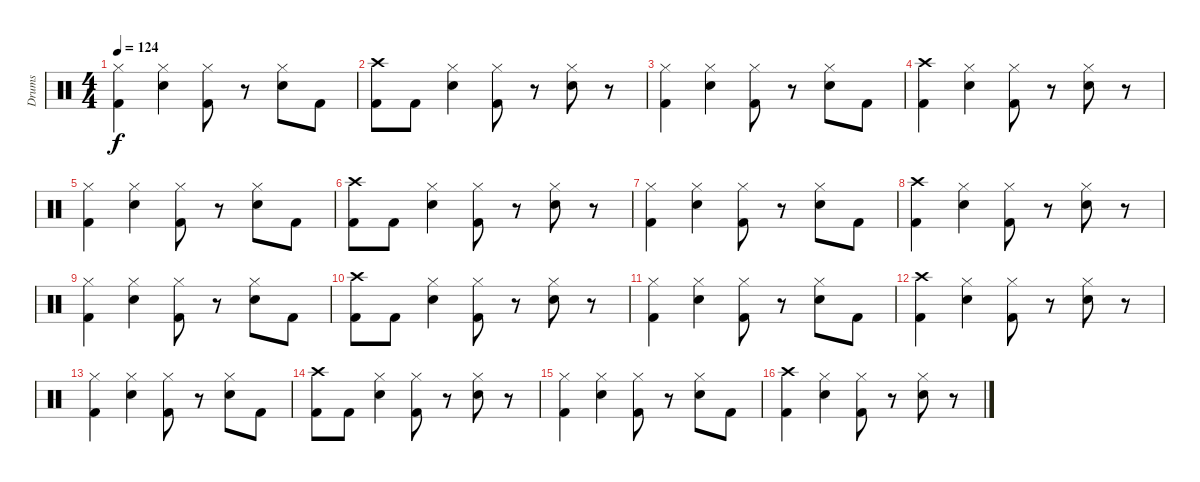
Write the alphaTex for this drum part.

\track ("Drums" "Drums") {instrument percussion}
\staff {score}
\articulation defaults
\ts (4 4)
\tempo 124
\clef neutral
\ks c
("Hi-Hat (closed)" "Kick (hit) 2").4{dy f} ("Hi-Hat (closed)" "Snare (hit) 2").4 ("Hi-Hat (closed)" "Kick (hit) 2").8 r.8 ("Hi-Hat (closed)" "Snare (hit) 2").8 "Kick (hit) 2".8 |
("Crash high (hit)" "Kick (hit) 2").8 "Kick (hit) 2".8 ("Hi-Hat (closed)" "Snare (hit) 2").4 ("Hi-Hat (closed)" "Kick (hit) 2").8 r.8 ("Hi-Hat (closed)" "Snare (hit) 2").8 r.8 |
("Hi-Hat (closed)" "Kick (hit) 2").4 ("Hi-Hat (closed)" "Snare (hit) 2").4 ("Hi-Hat (closed)" "Kick (hit) 2").8 r.8 ("Hi-Hat (closed)" "Snare (hit) 2").8 "Kick (hit) 2".8 |
("Crash high (hit)" "Kick (hit) 2").4 ("Hi-Hat (closed)" "Snare (hit) 2").4 ("Hi-Hat (closed)" "Kick (hit) 2").8 r.8 ("Hi-Hat (closed)" "Snare (hit) 2").8 r.8 |
("Hi-Hat (closed)" "Kick (hit) 2").4 ("Hi-Hat (closed)" "Snare (hit) 2").4 ("Hi-Hat (closed)" "Kick (hit) 2").8 r.8 ("Hi-Hat (closed)" "Snare (hit) 2").8 "Kick (hit) 2".8 |
("Crash high (hit)" "Kick (hit) 2").8 "Kick (hit) 2".8 ("Hi-Hat (closed)" "Snare (hit) 2").4 ("Hi-Hat (closed)" "Kick (hit) 2").8 r.8 ("Hi-Hat (closed)" "Snare (hit) 2").8 r.8 |
("Hi-Hat (closed)" "Kick (hit) 2").4 ("Hi-Hat (closed)" "Snare (hit) 2").4 ("Hi-Hat (closed)" "Kick (hit) 2").8 r.8 ("Hi-Hat (closed)" "Snare (hit) 2").8 "Kick (hit) 2".8 |
("Crash high (hit)" "Kick (hit) 2").4 ("Hi-Hat (closed)" "Snare (hit) 2").4 ("Hi-Hat (closed)" "Kick (hit) 2").8 r.8 ("Hi-Hat (closed)" "Snare (hit) 2").8 r.8 |
("Hi-Hat (closed)" "Kick (hit) 2").4 ("Hi-Hat (closed)" "Snare (hit) 2").4 ("Hi-Hat (closed)" "Kick (hit) 2").8 r.8 ("Hi-Hat (closed)" "Snare (hit) 2").8 "Kick (hit) 2".8 |
("Crash high (hit)" "Kick (hit) 2").8 "Kick (hit) 2".8 ("Hi-Hat (closed)" "Snare (hit) 2").4 ("Hi-Hat (closed)" "Kick (hit) 2").8 r.8 ("Hi-Hat (closed)" "Snare (hit) 2").8 r.8 |
("Hi-Hat (closed)" "Kick (hit) 2").4 ("Hi-Hat (closed)" "Snare (hit) 2").4 ("Hi-Hat (closed)" "Kick (hit) 2").8 r.8 ("Hi-Hat (closed)" "Snare (hit) 2").8 "Kick (hit) 2".8 |
("Crash high (hit)" "Kick (hit) 2").4 ("Hi-Hat (closed)" "Snare (hit) 2").4 ("Hi-Hat (closed)" "Kick (hit) 2").8 r.8 ("Hi-Hat (closed)" "Snare (hit) 2").8 r.8 |
("Hi-Hat (closed)" "Kick (hit) 2").4 ("Hi-Hat (closed)" "Snare (hit) 2").4 ("Hi-Hat (closed)" "Kick (hit) 2").8 r.8 ("Hi-Hat (closed)" "Snare (hit) 2").8 "Kick (hit) 2".8 |
("Crash high (hit)" "Kick (hit) 2").8 "Kick (hit) 2".8 ("Hi-Hat (closed)" "Snare (hit) 2").4 ("Hi-Hat (closed)" "Kick (hit) 2").8 r.8 ("Hi-Hat (closed)" "Snare (hit) 2").8 r.8 |
("Hi-Hat (closed)" "Kick (hit) 2").4 ("Hi-Hat (closed)" "Snare (hit) 2").4 ("Hi-Hat (closed)" "Kick (hit) 2").8 r.8 ("Hi-Hat (closed)" "Snare (hit) 2").8 "Kick (hit) 2".8 |
("Crash high (hit)" "Kick (hit) 2").4 ("Hi-Hat (closed)" "Snare (hit) 2").4 ("Hi-Hat (closed)" "Kick (hit) 2").8 r.8 ("Hi-Hat (closed)" "Snare (hit) 2").8 r.8
